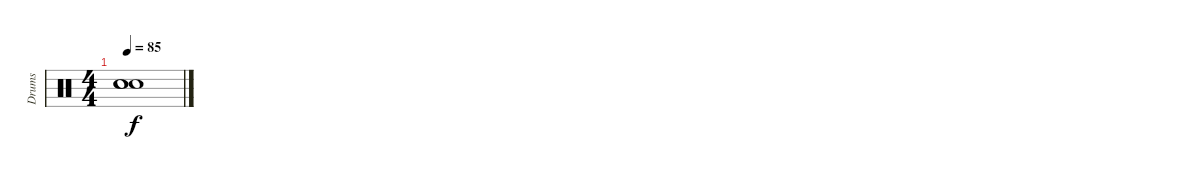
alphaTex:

\track ("Drums" "Drums") {instrument percussion}
\staff {score}
\articulation defaults
\ts (4 4)
\tempo 85
\clef neutral
\ks c
("Snare (hit)"{t} "Snare (hit)"{t} "Snare (hit)"{t}).1{dy f}
